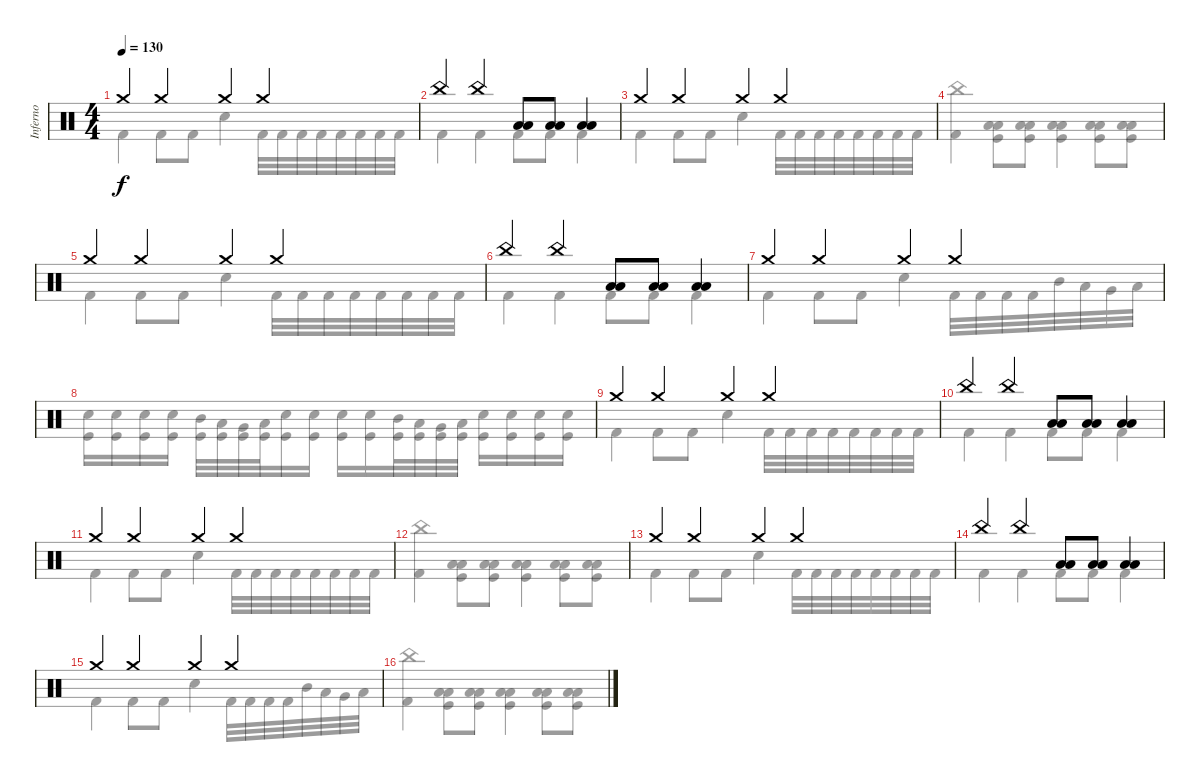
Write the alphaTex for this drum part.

\track ("Inferno" "Inferno") {instrument percussion}
\staff {score}
\articulation defaults
\voice
\ts (4 4)
\tempo 130
\clef neutral
\ks c "Crash medium (hit)".4{dy f} "Crash medium (hit)".4 "Crash medium (hit)".4 "Crash medium (hit)".4
|
"China (hit)".4 "China (hit)".4 ("Low Floor Tom (hit)" "Low Tom (hit)").8 ("Low Floor Tom (hit)" "Low Tom (hit)").8 ("Low Floor Tom (hit)" "Low Tom (hit)").4 |
"Crash medium (hit)".4 "Crash medium (hit)".4 "Crash medium (hit)".4 "Crash medium (hit)".4 |
|
"Crash medium (hit)".4 "Crash medium (hit)".4 "Crash medium (hit)".4 "Crash medium (hit)".4 |
"China (hit)".4 "China (hit)".4 ("Low Floor Tom (hit)" "Low Tom (hit)").8 ("Low Floor Tom (hit)" "Low Tom (hit)").8 ("Low Floor Tom (hit)" "Low Tom (hit)").4 |
"Crash medium (hit)".4 "Crash medium (hit)".4 "Crash medium (hit)".4 "Crash medium (hit)".4 |
|
"Crash medium (hit)".4 "Crash medium (hit)".4 "Crash medium (hit)".4 "Crash medium (hit)".4 |
"China (hit)".4 "China (hit)".4 ("Low Floor Tom (hit)" "Low Tom (hit)").8 ("Low Floor Tom (hit)" "Low Tom (hit)").8 ("Low Floor Tom (hit)" "Low Tom (hit)").4 |
"Crash medium (hit)".4 "Crash medium (hit)".4 "Crash medium (hit)".4 "Crash medium (hit)".4 |
|
"Crash medium (hit)".4 "Crash medium (hit)".4 "Crash medium (hit)".4 "Crash medium (hit)".4 |
"China (hit)".4 "China (hit)".4 ("Low Floor Tom (hit)" "Low Tom (hit)").8 ("Low Floor Tom (hit)" "Low Tom (hit)").8 ("Low Floor Tom (hit)" "Low Tom (hit)").4 |
"Crash medium (hit)".4 "Crash medium (hit)".4 "Crash medium (hit)".4 "Crash medium (hit)".4 |
\voice
\clef neutral
\ottava regular
\simile none
\ks c "Kick (hit) 2".4{dy f} "Kick (hit) 2".8 "Kick (hit) 2".8 "Snare (hit) 2".4 "Kick (hit) 2".32 "Kick (hit) 2".32 "Kick (hit) 2".32 "Kick (hit) 2".32 "Kick (hit) 2".32 "Kick (hit) 2".32 "Kick (hit) 2".32 "Kick (hit) 2".32
|
"Kick (hit) 2".4 "Kick (hit) 2".4 "Kick (hit) 2".8 "Kick (hit) 2".8 "Kick (hit) 2".4 |
"Kick (hit) 2".4 "Kick (hit) 2".8 "Kick (hit) 2".8 "Snare (hit) 2".4 "Kick (hit) 2".32 "Kick (hit) 2".32 "Kick (hit) 2".32 "Kick (hit) 2".32 "Kick (hit) 2".32 "Kick (hit) 2".32 "Kick (hit) 2".32 "Kick (hit) 2".32 |
("Kick (hit) 2" "China (hit)").4 ("Kick (hit)" "Low Floor Tom (hit)" "Low Tom (hit)").8 ("Kick (hit)" "Low Floor Tom (hit)" "Low Tom (hit)").8 ("Kick (hit)" "Low Floor Tom (hit)" "Low Tom (hit)").4 ("Kick (hit)" "Low Floor Tom (hit)" "Low Tom (hit)").8 ("Kick (hit)" "Low Floor Tom (hit)" "Low Tom (hit)").8 |
"Kick (hit) 2".4 "Kick (hit) 2".8 "Kick (hit) 2".8 "Snare (hit) 2".4 "Kick (hit) 2".32 "Kick (hit) 2".32 "Kick (hit) 2".32 "Kick (hit) 2".32 "Kick (hit) 2".32 "Kick (hit) 2".32 "Kick (hit) 2".32 "Kick (hit) 2".32 |
"Kick (hit) 2".4 "Kick (hit) 2".4 "Kick (hit) 2".8 "Kick (hit) 2".8 "Kick (hit) 2".4 |
"Kick (hit) 2".4 "Kick (hit) 2".8 "Kick (hit) 2".8 "Snare (hit) 2".4 "Kick (hit) 2".32 "Kick (hit) 2".32 "Kick (hit) 2".32 "Kick (hit) 2".32 "Mid Tom (hit)".32 "Low Tom (hit)".32 "Very Low Tom (hit)".32 "Low Floor Tom (hit)".32 |
("Kick (hit)" "Snare (hit) 2").16 ("Kick (hit)" "Snare (hit) 2").16 ("Kick (hit)" "Snare (hit) 2").16 ("Kick (hit)" "Snare (hit) 2").16 ("Kick (hit)" "Mid Tom (hit)").32 ("Kick (hit)" "Low Tom (hit)").32 ("Kick (hit)" "Very Low Tom (hit)").32 ("Kick (hit)" "Low Floor Tom (hit)").32 ("Kick (hit)" "Snare (hit) 2").16 ("Kick (hit)" "Snare (hit) 2").16 ("Kick (hit)" "Snare (hit) 2").16 ("Kick (hit)" "Snare (hit) 2").16 ("Kick (hit)" "Mid Tom (hit)").32 ("Kick (hit)" "Low Tom (hit)").32 ("Kick (hit)" "Very Low Tom (hit)").32 ("Kick (hit)" "Low Floor Tom (hit)").32 ("Kick (hit)" "Snare (hit) 2").16 ("Kick (hit)" "Snare (hit) 2").16 ("Kick (hit)" "Snare (hit) 2").16 ("Kick (hit)" "Snare (hit) 2").16 |
"Kick (hit) 2".4 "Kick (hit) 2".8 "Kick (hit) 2".8 "Snare (hit) 2".4 "Kick (hit) 2".32 "Kick (hit) 2".32 "Kick (hit) 2".32 "Kick (hit) 2".32 "Kick (hit) 2".32 "Kick (hit) 2".32 "Kick (hit) 2".32 "Kick (hit) 2".32 |
"Kick (hit) 2".4 "Kick (hit) 2".4 "Kick (hit) 2".8 "Kick (hit) 2".8 "Kick (hit) 2".4 |
"Kick (hit) 2".4 "Kick (hit) 2".8 "Kick (hit) 2".8 "Snare (hit) 2".4 "Kick (hit) 2".32 "Kick (hit) 2".32 "Kick (hit) 2".32 "Kick (hit) 2".32 "Kick (hit) 2".32 "Kick (hit) 2".32 "Kick (hit) 2".32 "Kick (hit) 2".32 |
("Kick (hit) 2" "China (hit)").4 ("Kick (hit)" "Low Floor Tom (hit)" "Low Tom (hit)").8 ("Kick (hit)" "Low Floor Tom (hit)" "Low Tom (hit)").8 ("Kick (hit)" "Low Floor Tom (hit)" "Low Tom (hit)").4 ("Kick (hit)" "Low Floor Tom (hit)" "Low Tom (hit)").8 ("Kick (hit)" "Low Floor Tom (hit)" "Low Tom (hit)").8 |
"Kick (hit) 2".4 "Kick (hit) 2".8 "Kick (hit) 2".8 "Snare (hit) 2".4 "Kick (hit) 2".32 "Kick (hit) 2".32 "Kick (hit) 2".32 "Kick (hit) 2".32 "Kick (hit) 2".32 "Kick (hit) 2".32 "Kick (hit) 2".32 "Kick (hit) 2".32 |
"Kick (hit) 2".4 "Kick (hit) 2".4 "Kick (hit) 2".8 "Kick (hit) 2".8 "Kick (hit) 2".4 |
"Kick (hit) 2".4 "Kick (hit) 2".8 "Kick (hit) 2".8 "Snare (hit) 2".4 "Kick (hit) 2".32 "Kick (hit) 2".32 "Kick (hit) 2".32 "Kick (hit) 2".32 "Mid Tom (hit)".32 "Low Tom (hit)".32 "Very Low Tom (hit)".32 "Low Floor Tom (hit)".32 |
("Kick (hit) 2" "China (hit)").4 ("Kick (hit)" "Low Floor Tom (hit)" "Low Tom (hit)").8 ("Kick (hit)" "Low Floor Tom (hit)" "Low Tom (hit)").8 ("Kick (hit)" "Low Floor Tom (hit)" "Low Tom (hit)").4 ("Kick (hit)" "Low Floor Tom (hit)" "Low Tom (hit)").8 ("Kick (hit)" "Low Floor Tom (hit)" "Low Tom (hit)").8
